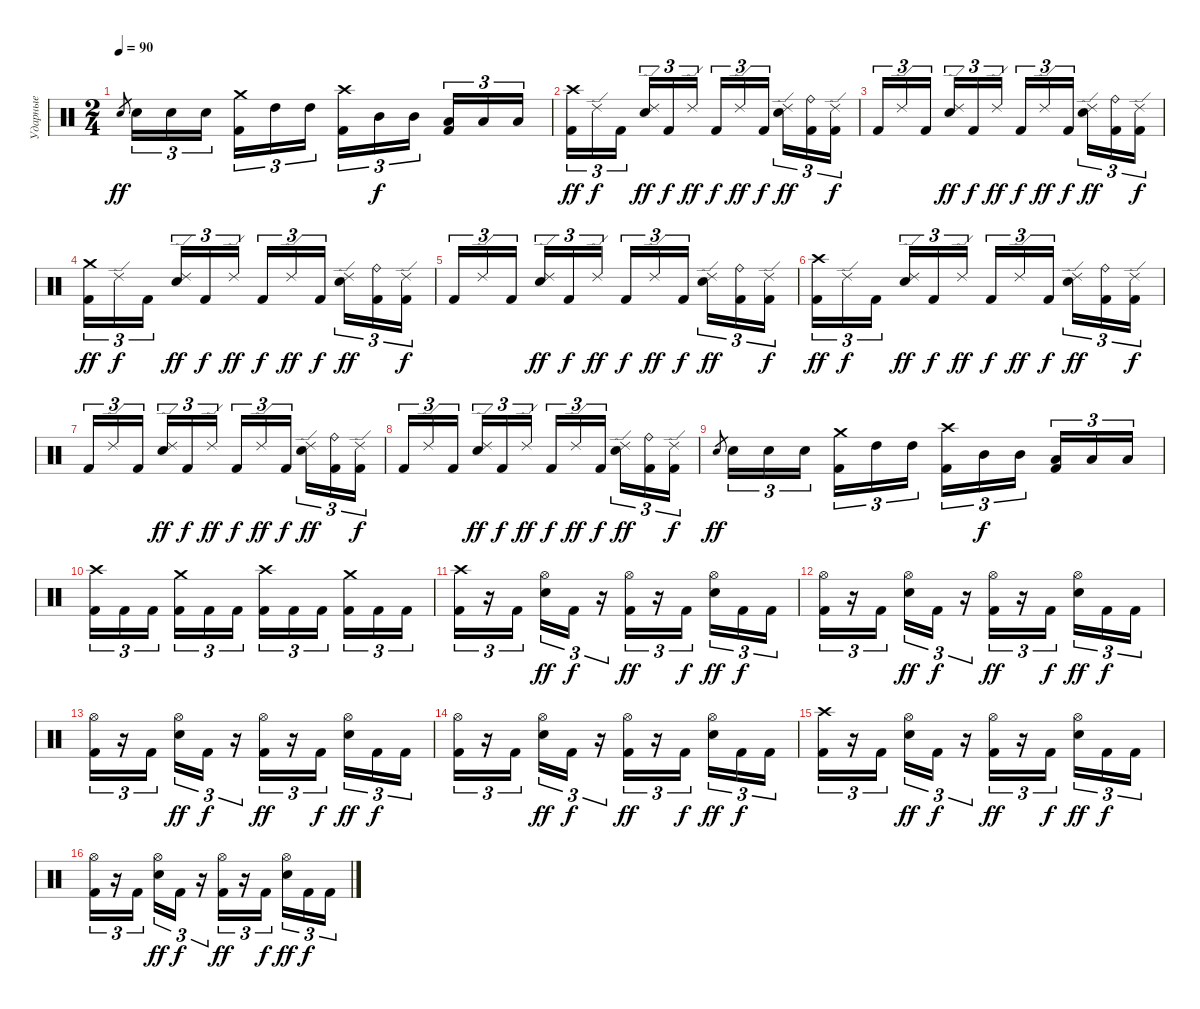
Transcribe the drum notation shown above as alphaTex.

\track ("Ударные" "Ударные") {instrument percussion}
\staff {score}
\articulation defaults
\ts (2 4)
\tempo 90
\clef neutral
\ks c "Electric Snare (hit)".8{gr dy ff} "Electric Snare (hit)".16{tu (3 2)} "Electric Snare (hit)".16{tu (3 2)} "Electric Snare (hit)".16{tu (3 2) beam splitsecondary}
("Crash medium (hit)" "Kick (hit) 2").16{tu (3 2)} "High Tom (hit)".16{tu (3 2)} "High Tom (hit)".16{tu (3 2)} ("Crash high (hit)" "Kick (hit) 2").16{tu (3 2)} "Mid Tom (hit)".16{tu (3 2) dy f} "Mid Tom (hit)".16{tu (3 2) beam splitsecondary} ("Low Tom (hit)" "Kick (hit) 2").16{tu (3 2)} "Low Tom (hit)".16{tu (3 2)} "Low Tom (hit)".16{tu (3 2)} |
("Crash high (hit)" "Kick (hit) 2").16{tu (3 2) dy ff} "Ride (edge) 2".16{tu (3 2) dy f} "Kick (hit) 2".16{tu (3 2) beam splitsecondary} ("Ride (edge) 2" "Electric Snare (hit)").16{tu (3 2) dy ff} "Kick (hit) 2".16{tu (3 2) dy f} "Ride (edge) 2".16{tu (3 2) dy ff} "Kick (hit) 2".16{tu (3 2) dy f} "Ride (edge) 2".16{tu (3 2) dy ff} "Kick (hit) 2".16{tu (3 2) dy f beam splitsecondary} ("Ride (edge) 2" "Electric Snare (hit)").16{tu (3 2) dy ff} ("Ride (bell)" "Kick (hit) 2").16{tu (3 2)} ("Ride (edge) 2" "Kick (hit) 2").16{tu (3 2) dy f} |
"Kick (hit) 2".16{tu (3 2)} "Ride (edge) 2".16{tu (3 2)} "Kick (hit) 2".16{tu (3 2) beam splitsecondary} ("Ride (edge) 2" "Electric Snare (hit)").16{tu (3 2) dy ff} "Kick (hit) 2".16{tu (3 2) dy f} "Ride (edge) 2".16{tu (3 2) dy ff} "Kick (hit) 2".16{tu (3 2) dy f} "Ride (edge) 2".16{tu (3 2) dy ff} "Kick (hit) 2".16{tu (3 2) dy f beam splitsecondary} ("Ride (edge) 2" "Electric Snare (hit)").16{tu (3 2) dy ff} ("Ride (bell)" "Kick (hit) 2").16{tu (3 2)} ("Ride (edge) 2" "Kick (hit) 2").16{tu (3 2) dy f} |
("Crash medium (hit)" "Kick (hit) 2").16{tu (3 2) dy ff} "Ride (edge) 2".16{tu (3 2) dy f} "Kick (hit) 2".16{tu (3 2) beam splitsecondary} ("Ride (edge) 2" "Electric Snare (hit)").16{tu (3 2) dy ff} "Kick (hit) 2".16{tu (3 2) dy f} "Ride (edge) 2".16{tu (3 2) dy ff} "Kick (hit) 2".16{tu (3 2) dy f} "Ride (edge) 2".16{tu (3 2) dy ff} "Kick (hit) 2".16{tu (3 2) dy f beam splitsecondary} ("Ride (edge) 2" "Electric Snare (hit)").16{tu (3 2) dy ff} ("Ride (bell)" "Kick (hit) 2").16{tu (3 2)} ("Ride (edge) 2" "Kick (hit) 2").16{tu (3 2) dy f} |
"Kick (hit) 2".16{tu (3 2)} "Ride (edge) 2".16{tu (3 2)} "Kick (hit) 2".16{tu (3 2) beam splitsecondary} ("Ride (edge) 2" "Electric Snare (hit)").16{tu (3 2) dy ff} "Kick (hit) 2".16{tu (3 2) dy f} "Ride (edge) 2".16{tu (3 2) dy ff} "Kick (hit) 2".16{tu (3 2) dy f} "Ride (edge) 2".16{tu (3 2) dy ff} "Kick (hit) 2".16{tu (3 2) dy f beam splitsecondary} ("Ride (edge) 2" "Electric Snare (hit)").16{tu (3 2) dy ff} ("Ride (bell)" "Kick (hit) 2").16{tu (3 2)} ("Ride (edge) 2" "Kick (hit) 2").16{tu (3 2) dy f} |
("Crash high (hit)" "Kick (hit) 2").16{tu (3 2) dy ff} "Ride (edge) 2".16{tu (3 2) dy f} "Kick (hit) 2".16{tu (3 2) beam splitsecondary} ("Ride (edge) 2" "Electric Snare (hit)").16{tu (3 2) dy ff} "Kick (hit) 2".16{tu (3 2) dy f} "Ride (edge) 2".16{tu (3 2) dy ff} "Kick (hit) 2".16{tu (3 2) dy f} "Ride (edge) 2".16{tu (3 2) dy ff} "Kick (hit) 2".16{tu (3 2) dy f beam splitsecondary} ("Ride (edge) 2" "Electric Snare (hit)").16{tu (3 2) dy ff} ("Ride (bell)" "Kick (hit) 2").16{tu (3 2)} ("Ride (edge) 2" "Kick (hit) 2").16{tu (3 2) dy f} |
"Kick (hit) 2".16{tu (3 2)} "Ride (edge) 2".16{tu (3 2)} "Kick (hit) 2".16{tu (3 2) beam splitsecondary} ("Ride (edge) 2" "Electric Snare (hit)").16{tu (3 2) dy ff} "Kick (hit) 2".16{tu (3 2) dy f} "Ride (edge) 2".16{tu (3 2) dy ff} "Kick (hit) 2".16{tu (3 2) dy f} "Ride (edge) 2".16{tu (3 2) dy ff} "Kick (hit) 2".16{tu (3 2) dy f beam splitsecondary} ("Ride (edge) 2" "Electric Snare (hit)").16{tu (3 2) dy ff} ("Ride (bell)" "Kick (hit) 2").16{tu (3 2)} ("Ride (edge) 2" "Kick (hit) 2").16{tu (3 2) dy f} |
"Kick (hit) 2".16{tu (3 2)} "Ride (edge) 2".16{tu (3 2)} "Kick (hit) 2".16{tu (3 2) beam splitsecondary} ("Ride (edge) 2" "Electric Snare (hit)").16{tu (3 2) dy ff} "Kick (hit) 2".16{tu (3 2) dy f} "Ride (edge) 2".16{tu (3 2) dy ff} "Kick (hit) 2".16{tu (3 2) dy f} "Ride (edge) 2".16{tu (3 2) dy ff} "Kick (hit) 2".16{tu (3 2) dy f beam splitsecondary} ("Ride (edge) 2" "Electric Snare (hit)").16{tu (3 2) dy ff} ("Ride (bell)" "Kick (hit) 2").16{tu (3 2)} ("Ride (edge) 2" "Kick (hit) 2").16{tu (3 2) dy f} |
"Electric Snare (hit)".8{gr dy ff} "Electric Snare (hit)".16{tu (3 2)} "Electric Snare (hit)".16{tu (3 2)} "Electric Snare (hit)".16{tu (3 2) beam splitsecondary} ("Crash medium (hit)" "Kick (hit) 2").16{tu (3 2)} "High Tom (hit)".16{tu (3 2)} "High Tom (hit)".16{tu (3 2)} ("Crash high (hit)" "Kick (hit) 2").16{tu (3 2)} "Mid Tom (hit)".16{tu (3 2) dy f} "Mid Tom (hit)".16{tu (3 2) beam splitsecondary} ("Low Tom (hit)" "Kick (hit) 2").16{tu (3 2)} "Low Tom (hit)".16{tu (3 2)} "Low Tom (hit)".16{tu (3 2)} |
("Crash high (hit)" "Kick (hit) 2").16{tu (3 2)} "Kick (hit) 2".16{tu (3 2)} "Kick (hit) 2".16{tu (3 2) beam splitsecondary} ("Crash medium (hit)" "Kick (hit) 2").16{tu (3 2)} "Kick (hit) 2".16{tu (3 2)} "Kick (hit) 2".16{tu (3 2)} ("Crash high (hit)" "Kick (hit) 2").16{tu (3 2)} "Kick (hit) 2".16{tu (3 2)} "Kick (hit) 2".16{tu (3 2) beam splitsecondary} ("Crash medium (hit)" "Kick (hit) 2").16{tu (3 2)} "Kick (hit) 2".16{tu (3 2)} "Kick (hit) 2".16{tu (3 2)} |
("Crash high (hit)" "Kick (hit) 2").16{tu (3 2)} r.16{tu (3 2)} "Kick (hit) 2".16{tu (3 2) beam splitsecondary} ("Hi-Hat (open)" "Electric Snare (hit)").16{tu (3 2) dy ff} "Kick (hit) 2".16{tu (3 2) dy f} r.16{tu (3 2)} ("Hi-Hat (open)" "Kick (hit) 2").16{tu (3 2) dy ff} r.16{tu (3 2)} "Kick (hit) 2".16{tu (3 2) dy f beam splitsecondary} ("Hi-Hat (open)" "Electric Snare (hit)").16{tu (3 2) dy ff} "Kick (hit) 2".16{tu (3 2) dy f} "Kick (hit) 2".16{tu (3 2)} |
("Hi-Hat (open)" "Kick (hit) 2").16{tu (3 2)} r.16{tu (3 2)} "Kick (hit) 2".16{tu (3 2) beam splitsecondary} ("Hi-Hat (open)" "Electric Snare (hit)").16{tu (3 2) dy ff} "Kick (hit) 2".16{tu (3 2) dy f} r.16{tu (3 2)} ("Hi-Hat (open)" "Kick (hit) 2").16{tu (3 2) dy ff} r.16{tu (3 2)} "Kick (hit) 2".16{tu (3 2) dy f beam splitsecondary} ("Hi-Hat (open)" "Electric Snare (hit)").16{tu (3 2) dy ff} "Kick (hit) 2".16{tu (3 2) dy f} "Kick (hit) 2".16{tu (3 2)} |
("Hi-Hat (open)" "Kick (hit) 2").16{tu (3 2)} r.16{tu (3 2)} "Kick (hit) 2".16{tu (3 2) beam splitsecondary} ("Hi-Hat (open)" "Electric Snare (hit)").16{tu (3 2) dy ff} "Kick (hit) 2".16{tu (3 2) dy f} r.16{tu (3 2)} ("Hi-Hat (open)" "Kick (hit) 2").16{tu (3 2) dy ff} r.16{tu (3 2)} "Kick (hit) 2".16{tu (3 2) dy f beam splitsecondary} ("Hi-Hat (open)" "Electric Snare (hit)").16{tu (3 2) dy ff} "Kick (hit) 2".16{tu (3 2) dy f} "Kick (hit) 2".16{tu (3 2)} |
("Hi-Hat (open)" "Kick (hit) 2").16{tu (3 2)} r.16{tu (3 2)} "Kick (hit) 2".16{tu (3 2) beam splitsecondary} ("Hi-Hat (open)" "Electric Snare (hit)").16{tu (3 2) dy ff} "Kick (hit) 2".16{tu (3 2) dy f} r.16{tu (3 2)} ("Hi-Hat (open)" "Kick (hit) 2").16{tu (3 2) dy ff} r.16{tu (3 2)} "Kick (hit) 2".16{tu (3 2) dy f beam splitsecondary} ("Hi-Hat (open)" "Electric Snare (hit)").16{tu (3 2) dy ff} "Kick (hit) 2".16{tu (3 2) dy f} "Kick (hit) 2".16{tu (3 2)} |
("Crash high (hit)" "Kick (hit) 2").16{tu (3 2)} r.16{tu (3 2)} "Kick (hit) 2".16{tu (3 2) beam splitsecondary} ("Hi-Hat (open)" "Electric Snare (hit)").16{tu (3 2) dy ff} "Kick (hit) 2".16{tu (3 2) dy f} r.16{tu (3 2)} ("Hi-Hat (open)" "Kick (hit) 2").16{tu (3 2) dy ff} r.16{tu (3 2)} "Kick (hit) 2".16{tu (3 2) dy f beam splitsecondary} ("Hi-Hat (open)" "Electric Snare (hit)").16{tu (3 2) dy ff} "Kick (hit) 2".16{tu (3 2) dy f} "Kick (hit) 2".16{tu (3 2)} |
("Hi-Hat (open)" "Kick (hit) 2").16{tu (3 2)} r.16{tu (3 2)} "Kick (hit) 2".16{tu (3 2) beam splitsecondary} ("Hi-Hat (open)" "Electric Snare (hit)").16{tu (3 2) dy ff} "Kick (hit) 2".16{tu (3 2) dy f} r.16{tu (3 2)} ("Hi-Hat (open)" "Kick (hit) 2").16{tu (3 2) dy ff} r.16{tu (3 2)} "Kick (hit) 2".16{tu (3 2) dy f beam splitsecondary} ("Hi-Hat (open)" "Electric Snare (hit)").16{tu (3 2) dy ff} "Kick (hit) 2".16{tu (3 2) dy f} "Kick (hit) 2".16{tu (3 2)}
